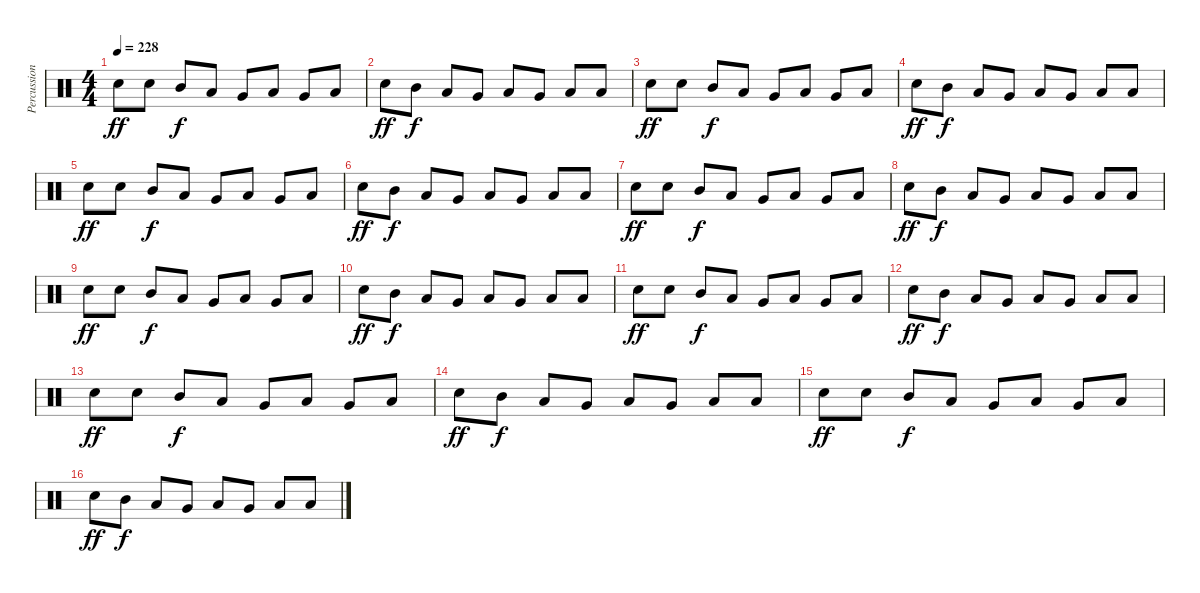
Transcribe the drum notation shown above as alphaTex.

\track ("Percussion" "Percussion") {instrument percussion}
\staff {score}
\articulation defaults
\ts (4 4)
\tempo 228
\clef neutral
\ks c "Snare (hit) 2".8{dy ff} "Snare (hit) 2".8 "Mid Tom (hit)".8{dy f} "Low Tom (hit)".8 "Very Low Tom (hit)".8 "Low Tom (hit)".8 "Very Low Tom (hit)".8 "Low Floor Tom (hit)".8
|
"Snare (hit) 2".8{dy ff} "Mid Tom (hit)".8{dy f} "Low Tom (hit)".8 "Very Low Tom (hit)".8 "Low Tom (hit)".8 "Very Low Tom (hit)".8 "Low Floor Tom (hit)".8 "Low Floor Tom (hit)".8 |
"Snare (hit) 2".8{dy ff} "Snare (hit) 2".8 "Mid Tom (hit)".8{dy f} "Low Tom (hit)".8 "Very Low Tom (hit)".8 "Low Tom (hit)".8 "Very Low Tom (hit)".8 "Low Floor Tom (hit)".8 |
"Snare (hit) 2".8{dy ff} "Mid Tom (hit)".8{dy f} "Low Tom (hit)".8 "Very Low Tom (hit)".8 "Low Tom (hit)".8 "Very Low Tom (hit)".8 "Low Floor Tom (hit)".8 "Low Floor Tom (hit)".8 |
"Snare (hit) 2".8{dy ff} "Snare (hit) 2".8 "Mid Tom (hit)".8{dy f} "Low Tom (hit)".8 "Very Low Tom (hit)".8 "Low Tom (hit)".8 "Very Low Tom (hit)".8 "Low Floor Tom (hit)".8 |
"Snare (hit) 2".8{dy ff} "Mid Tom (hit)".8{dy f} "Low Tom (hit)".8 "Very Low Tom (hit)".8 "Low Tom (hit)".8 "Very Low Tom (hit)".8 "Low Floor Tom (hit)".8 "Low Floor Tom (hit)".8 |
"Snare (hit) 2".8{dy ff} "Snare (hit) 2".8 "Mid Tom (hit)".8{dy f} "Low Tom (hit)".8 "Very Low Tom (hit)".8 "Low Tom (hit)".8 "Very Low Tom (hit)".8 "Low Floor Tom (hit)".8 |
"Snare (hit) 2".8{dy ff} "Mid Tom (hit)".8{dy f} "Low Tom (hit)".8 "Very Low Tom (hit)".8 "Low Tom (hit)".8 "Very Low Tom (hit)".8 "Low Floor Tom (hit)".8 "Low Floor Tom (hit)".8 |
"Snare (hit) 2".8{dy ff} "Snare (hit) 2".8 "Mid Tom (hit)".8{dy f} "Low Tom (hit)".8 "Very Low Tom (hit)".8 "Low Tom (hit)".8 "Very Low Tom (hit)".8 "Low Floor Tom (hit)".8 |
"Snare (hit) 2".8{dy ff} "Mid Tom (hit)".8{dy f} "Low Tom (hit)".8 "Very Low Tom (hit)".8 "Low Tom (hit)".8 "Very Low Tom (hit)".8 "Low Floor Tom (hit)".8 "Low Floor Tom (hit)".8 |
"Snare (hit) 2".8{dy ff} "Snare (hit) 2".8 "Mid Tom (hit)".8{dy f} "Low Tom (hit)".8 "Very Low Tom (hit)".8 "Low Tom (hit)".8 "Very Low Tom (hit)".8 "Low Floor Tom (hit)".8 |
"Snare (hit) 2".8{dy ff} "Mid Tom (hit)".8{dy f} "Low Tom (hit)".8 "Very Low Tom (hit)".8 "Low Tom (hit)".8 "Very Low Tom (hit)".8 "Low Floor Tom (hit)".8 "Low Floor Tom (hit)".8 |
"Snare (hit) 2".8{dy ff} "Snare (hit) 2".8 "Mid Tom (hit)".8{dy f} "Low Tom (hit)".8 "Very Low Tom (hit)".8 "Low Tom (hit)".8 "Very Low Tom (hit)".8 "Low Floor Tom (hit)".8 |
"Snare (hit) 2".8{dy ff} "Mid Tom (hit)".8{dy f} "Low Tom (hit)".8 "Very Low Tom (hit)".8 "Low Tom (hit)".8 "Very Low Tom (hit)".8 "Low Floor Tom (hit)".8 "Low Floor Tom (hit)".8 |
"Snare (hit) 2".8{dy ff} "Snare (hit) 2".8 "Mid Tom (hit)".8{dy f} "Low Tom (hit)".8 "Very Low Tom (hit)".8 "Low Tom (hit)".8 "Very Low Tom (hit)".8 "Low Floor Tom (hit)".8 |
"Snare (hit) 2".8{dy ff} "Mid Tom (hit)".8{dy f} "Low Tom (hit)".8 "Very Low Tom (hit)".8 "Low Tom (hit)".8 "Very Low Tom (hit)".8 "Low Floor Tom (hit)".8 "Low Floor Tom (hit)".8
